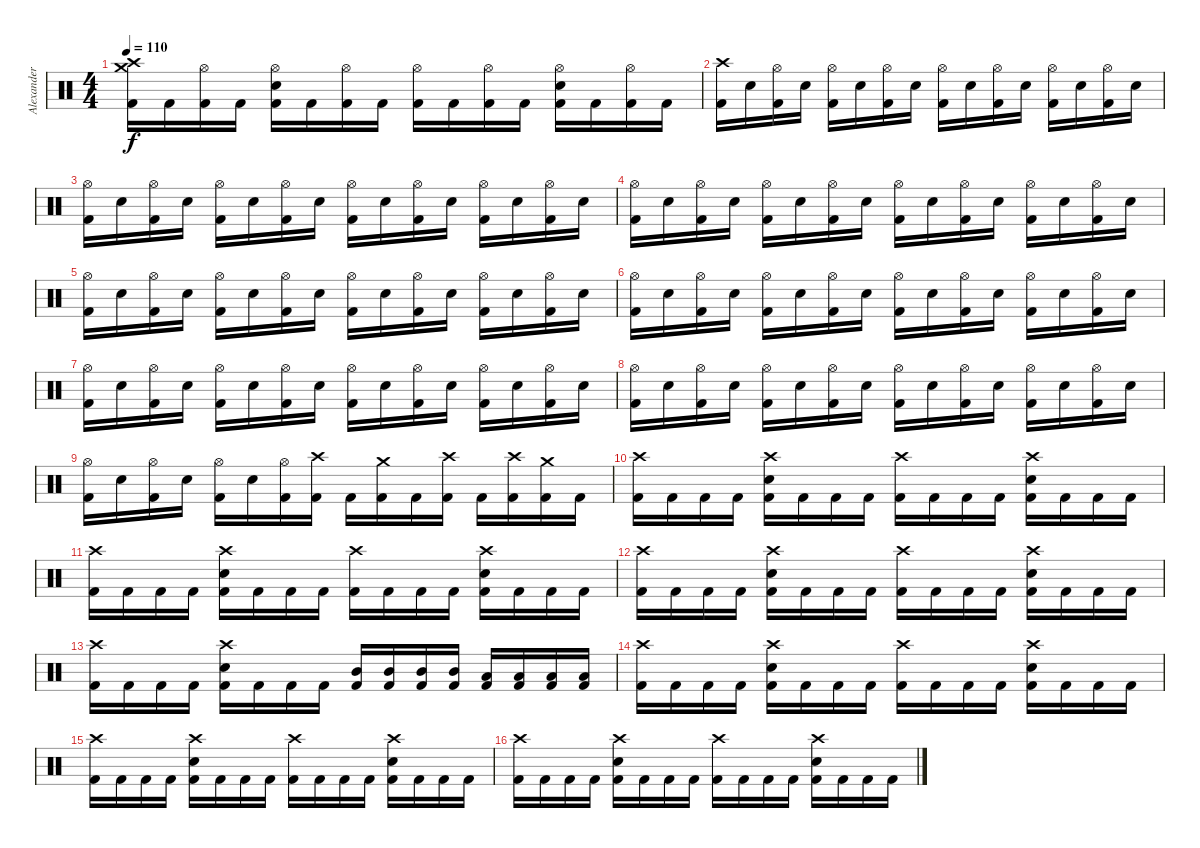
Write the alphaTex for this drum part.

\track ("Alexander C." "Alexander ") {instrument percussion}
\staff {score}
\articulation defaults
\ts (4 4)
\tempo 110
\clef neutral
\ks c
("Crash high (hit)" "Crash medium (hit)" "Kick (hit) 2").16{dy f} "Kick (hit) 2".16 ("Hi-Hat (open)" "Kick (hit) 2").16 "Kick (hit) 2".16 ("Hi-Hat (open)" "Snare (hit) 2" "Kick (hit) 2").16 "Kick (hit) 2".16 ("Hi-Hat (open)" "Kick (hit) 2").16 "Kick (hit) 2".16 ("Hi-Hat (open)" "Kick (hit) 2").16 "Kick (hit) 2".16 ("Hi-Hat (open)" "Kick (hit) 2").16 "Kick (hit) 2".16 ("Hi-Hat (open)" "Snare (hit) 2" "Kick (hit) 2").16 "Kick (hit) 2".16 ("Hi-Hat (open)" "Kick (hit) 2").16 "Kick (hit) 2".16 |
("Crash high (hit)" "Kick (hit) 2").16 "Snare (hit) 2".16 ("Hi-Hat (open)" "Kick (hit) 2").16 "Snare (hit) 2".16 ("Hi-Hat (open)" "Kick (hit) 2").16 "Snare (hit) 2".16 ("Hi-Hat (open)" "Kick (hit) 2").16 "Snare (hit) 2".16 ("Hi-Hat (open)" "Kick (hit) 2").16 "Snare (hit) 2".16 ("Hi-Hat (open)" "Kick (hit) 2").16 "Snare (hit) 2".16 ("Hi-Hat (open)" "Kick (hit) 2").16 "Snare (hit) 2".16 ("Hi-Hat (open)" "Kick (hit) 2").16 "Snare (hit) 2".16 |
("Hi-Hat (open)" "Kick (hit) 2").16 "Snare (hit) 2".16 ("Hi-Hat (open)" "Kick (hit) 2").16 "Snare (hit) 2".16 ("Hi-Hat (open)" "Kick (hit) 2").16 "Snare (hit) 2".16 ("Hi-Hat (open)" "Kick (hit) 2").16 "Snare (hit) 2".16 ("Hi-Hat (open)" "Kick (hit) 2").16 "Snare (hit) 2".16 ("Hi-Hat (open)" "Kick (hit) 2").16 "Snare (hit) 2".16 ("Hi-Hat (open)" "Kick (hit) 2").16 "Snare (hit) 2".16 ("Hi-Hat (open)" "Kick (hit) 2").16 "Snare (hit) 2".16 |
("Hi-Hat (open)" "Kick (hit) 2").16 "Snare (hit) 2".16 ("Hi-Hat (open)" "Kick (hit) 2").16 "Snare (hit) 2".16 ("Hi-Hat (open)" "Kick (hit) 2").16 "Snare (hit) 2".16 ("Hi-Hat (open)" "Kick (hit) 2").16 "Snare (hit) 2".16 ("Hi-Hat (open)" "Kick (hit) 2").16 "Snare (hit) 2".16 ("Hi-Hat (open)" "Kick (hit) 2").16 "Snare (hit) 2".16 ("Hi-Hat (open)" "Kick (hit) 2").16 "Snare (hit) 2".16 ("Hi-Hat (open)" "Kick (hit) 2").16 "Snare (hit) 2".16 |
("Hi-Hat (open)" "Kick (hit) 2").16 "Snare (hit) 2".16 ("Hi-Hat (open)" "Kick (hit) 2").16 "Snare (hit) 2".16 ("Hi-Hat (open)" "Kick (hit) 2").16 "Snare (hit) 2".16 ("Hi-Hat (open)" "Kick (hit) 2").16 "Snare (hit) 2".16 ("Hi-Hat (open)" "Kick (hit) 2").16 "Snare (hit) 2".16 ("Hi-Hat (open)" "Kick (hit) 2").16 "Snare (hit) 2".16 ("Hi-Hat (open)" "Kick (hit) 2").16 "Snare (hit) 2".16 ("Hi-Hat (open)" "Kick (hit) 2").16 "Snare (hit) 2".16 |
("Hi-Hat (open)" "Kick (hit) 2").16 "Snare (hit) 2".16 ("Hi-Hat (open)" "Kick (hit) 2").16 "Snare (hit) 2".16 ("Hi-Hat (open)" "Kick (hit) 2").16 "Snare (hit) 2".16 ("Hi-Hat (open)" "Kick (hit) 2").16 "Snare (hit) 2".16 ("Hi-Hat (open)" "Kick (hit) 2").16 "Snare (hit) 2".16 ("Hi-Hat (open)" "Kick (hit) 2").16 "Snare (hit) 2".16 ("Hi-Hat (open)" "Kick (hit) 2").16 "Snare (hit) 2".16 ("Hi-Hat (open)" "Kick (hit) 2").16 "Snare (hit) 2".16 |
("Hi-Hat (open)" "Kick (hit) 2").16 "Snare (hit) 2".16 ("Hi-Hat (open)" "Kick (hit) 2").16 "Snare (hit) 2".16 ("Hi-Hat (open)" "Kick (hit) 2").16 "Snare (hit) 2".16 ("Hi-Hat (open)" "Kick (hit) 2").16 "Snare (hit) 2".16 ("Hi-Hat (open)" "Kick (hit) 2").16 "Snare (hit) 2".16 ("Hi-Hat (open)" "Kick (hit) 2").16 "Snare (hit) 2".16 ("Hi-Hat (open)" "Kick (hit) 2").16 "Snare (hit) 2".16 ("Hi-Hat (open)" "Kick (hit) 2").16 "Snare (hit) 2".16 |
("Hi-Hat (open)" "Kick (hit) 2").16 "Snare (hit) 2".16 ("Hi-Hat (open)" "Kick (hit) 2").16 "Snare (hit) 2".16 ("Hi-Hat (open)" "Kick (hit) 2").16 "Snare (hit) 2".16 ("Hi-Hat (open)" "Kick (hit) 2").16 "Snare (hit) 2".16 ("Hi-Hat (open)" "Kick (hit) 2").16 "Snare (hit) 2".16 ("Hi-Hat (open)" "Kick (hit) 2").16 "Snare (hit) 2".16 ("Hi-Hat (open)" "Kick (hit) 2").16 "Snare (hit) 2".16 ("Hi-Hat (open)" "Kick (hit) 2").16 "Snare (hit) 2".16 |
("Hi-Hat (open)" "Kick (hit) 2").16 "Snare (hit) 2".16 ("Hi-Hat (open)" "Kick (hit) 2").16 "Snare (hit) 2".16 ("Hi-Hat (open)" "Kick (hit) 2").16 "Snare (hit) 2".16 ("Hi-Hat (open)" "Kick (hit) 2").16 ("Crash high (hit)" "Kick (hit) 2").16 "Kick (hit) 2".16 ("Crash medium (hit)" "Kick (hit) 2").16 "Kick (hit) 2".16 ("Crash high (hit)" "Kick (hit) 2").16 "Kick (hit) 2".16 ("Crash high (hit)" "Kick (hit) 2").16 ("Crash medium (hit)" "Kick (hit) 2").16 "Kick (hit) 2".16 |
("Crash high (hit)" "Kick (hit) 2").16 "Kick (hit) 2".16 "Kick (hit) 2".16 "Kick (hit) 2".16 ("Crash high (hit)" "Snare (hit) 2" "Kick (hit) 2").16 "Kick (hit) 2".16 "Kick (hit) 2".16 "Kick (hit) 2".16 ("Crash high (hit)" "Kick (hit) 2").16 "Kick (hit) 2".16 "Kick (hit) 2".16 "Kick (hit) 2".16 ("Crash high (hit)" "Snare (hit) 2" "Kick (hit) 2").16 "Kick (hit) 2".16 "Kick (hit) 2".16 "Kick (hit) 2".16 |
("Crash high (hit)" "Kick (hit) 2").16 "Kick (hit) 2".16 "Kick (hit) 2".16 "Kick (hit) 2".16 ("Crash high (hit)" "Snare (hit) 2" "Kick (hit) 2").16 "Kick (hit) 2".16 "Kick (hit) 2".16 "Kick (hit) 2".16 ("Crash high (hit)" "Kick (hit) 2").16 "Kick (hit) 2".16 "Kick (hit) 2".16 "Kick (hit) 2".16 ("Crash high (hit)" "Snare (hit) 2" "Kick (hit) 2").16 "Kick (hit) 2".16 "Kick (hit) 2".16 "Kick (hit) 2".16 |
("Crash high (hit)" "Kick (hit) 2").16 "Kick (hit) 2".16 "Kick (hit) 2".16 "Kick (hit) 2".16 ("Crash high (hit)" "Snare (hit) 2" "Kick (hit) 2").16 "Kick (hit) 2".16 "Kick (hit) 2".16 "Kick (hit) 2".16 ("Crash high (hit)" "Kick (hit) 2").16 "Kick (hit) 2".16 "Kick (hit) 2".16 "Kick (hit) 2".16 ("Crash high (hit)" "Snare (hit) 2" "Kick (hit) 2").16 "Kick (hit) 2".16 "Kick (hit) 2".16 "Kick (hit) 2".16 |
("Crash high (hit)" "Kick (hit) 2").16 "Kick (hit) 2".16 "Kick (hit) 2".16 "Kick (hit) 2".16 ("Crash high (hit)" "Snare (hit) 2" "Kick (hit) 2").16 "Kick (hit) 2".16 "Kick (hit) 2".16 "Kick (hit) 2".16 ("Mid Tom (hit)" "Kick (hit) 2").16 ("Mid Tom (hit)" "Kick (hit) 2").16 ("Mid Tom (hit)" "Kick (hit) 2").16 ("Mid Tom (hit)" "Kick (hit) 2").16 ("Low Tom (hit)" "Kick (hit) 2").16 ("Low Tom (hit)" "Kick (hit) 2").16 ("Low Tom (hit)" "Kick (hit) 2").16 ("Low Tom (hit)" "Kick (hit) 2").16 |
("Crash high (hit)" "Kick (hit) 2").16 "Kick (hit) 2".16 "Kick (hit) 2".16 "Kick (hit) 2".16 ("Crash high (hit)" "Snare (hit) 2" "Kick (hit) 2").16 "Kick (hit) 2".16 "Kick (hit) 2".16 "Kick (hit) 2".16 ("Crash high (hit)" "Kick (hit) 2").16 "Kick (hit) 2".16 "Kick (hit) 2".16 "Kick (hit) 2".16 ("Crash high (hit)" "Snare (hit) 2" "Kick (hit) 2").16 "Kick (hit) 2".16 "Kick (hit) 2".16 "Kick (hit) 2".16 |
("Crash high (hit)" "Kick (hit) 2").16 "Kick (hit) 2".16 "Kick (hit) 2".16 "Kick (hit) 2".16 ("Crash high (hit)" "Snare (hit) 2" "Kick (hit) 2").16 "Kick (hit) 2".16 "Kick (hit) 2".16 "Kick (hit) 2".16 ("Crash high (hit)" "Kick (hit) 2").16 "Kick (hit) 2".16 "Kick (hit) 2".16 "Kick (hit) 2".16 ("Crash high (hit)" "Snare (hit) 2" "Kick (hit) 2").16 "Kick (hit) 2".16 "Kick (hit) 2".16 "Kick (hit) 2".16 |
("Crash high (hit)" "Kick (hit) 2").16 "Kick (hit) 2".16 "Kick (hit) 2".16 "Kick (hit) 2".16 ("Crash high (hit)" "Snare (hit) 2" "Kick (hit) 2").16 "Kick (hit) 2".16 "Kick (hit) 2".16 "Kick (hit) 2".16 ("Crash high (hit)" "Kick (hit) 2").16 "Kick (hit) 2".16 "Kick (hit) 2".16 "Kick (hit) 2".16 ("Crash high (hit)" "Snare (hit) 2" "Kick (hit) 2").16 "Kick (hit) 2".16 "Kick (hit) 2".16 "Kick (hit) 2".16
